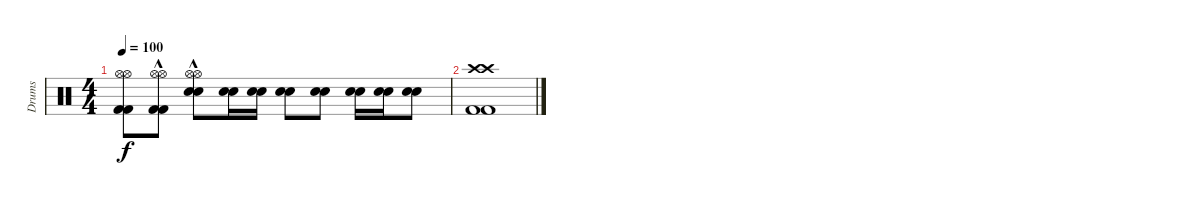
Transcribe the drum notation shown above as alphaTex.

\track ("Drums" "Drums") {instrument percussion}
\staff {score}
\articulation defaults
\ts (4 4)
\tempo 100
\clef neutral
\ks c
("Kick (hit) 2" "Kick (hit) 2" "Hi-Hat (open)" "Hi-Hat (open)").8{dy f} ("Kick (hit) 2"{hac} "Kick (hit) 2"{hac} "Hi-Hat (open)" "Hi-Hat (open)").8 ("Snare (hit) 2" "Snare (hit) 2" "Hi-Hat (open)"{hac} "Hi-Hat (open)"{hac}).8 ("Snare (hit) 2" "Snare (hit) 2").16 ("Snare (hit) 2" "Snare (hit) 2").16 ("Snare (hit) 2" "Snare (hit) 2").8 ("Snare (hit) 2" "Snare (hit) 2").8 ("Snare (hit) 2" "Snare (hit) 2").16 ("Snare (hit) 2" "Snare (hit) 2").16 ("Snare (hit) 2" "Snare (hit) 2").8 |
("Kick (hit) 2" "Kick (hit) 2" "Crash high (hit)" "Crash high (hit)").1
